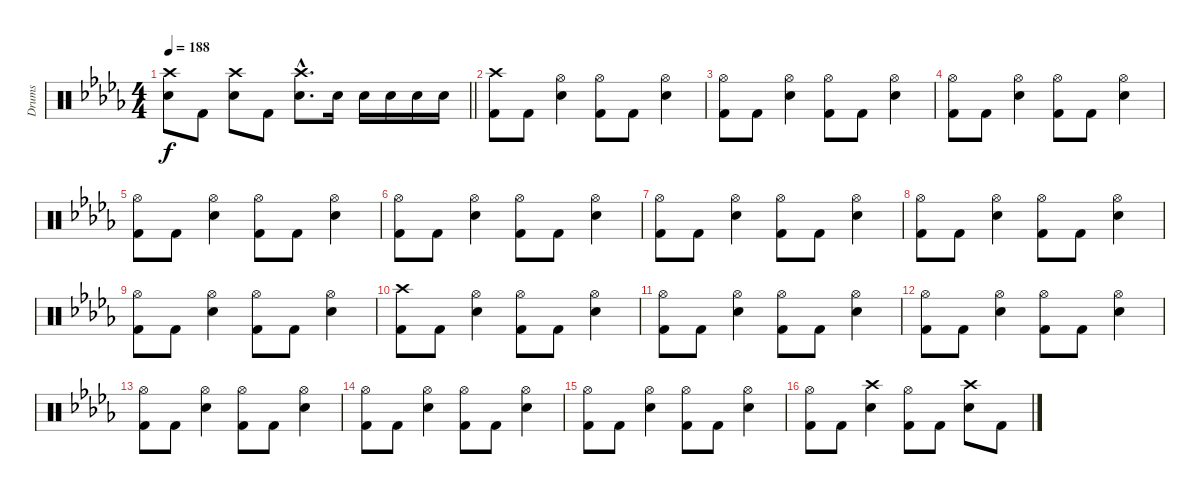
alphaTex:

\track ("Drums" "Drums") {instrument percussion}
\staff {score}
\articulation defaults
\ts (4 4)
\tempo 188
\clef neutral
\barLineRight lightlight
\ks bbminor
("Crash high (hit)" "Electric Snare (hit)").8{dy f} "Kick (hit) 2".8 ("Crash high (hit)" "Electric Snare (hit)").8 "Kick (hit) 2".8 ("Crash high (hit)"{hac} "Electric Snare (hit)"{hac}).8{d} "Electric Snare (hit)".16 "Electric Snare (hit)".16 "Electric Snare (hit)".16 "Electric Snare (hit)".16 "Electric Snare (hit)".16 |
("Crash high (hit)" "Kick (hit) 2").8 "Kick (hit) 2".8 ("Hi-Hat (open)" "Electric Snare (hit)").4 ("Hi-Hat (open)" "Kick (hit) 2").8 "Kick (hit) 2".8 ("Hi-Hat (open)" "Electric Snare (hit)").4 |
("Hi-Hat (open)" "Kick (hit) 2").8 "Kick (hit) 2".8 ("Hi-Hat (open)" "Electric Snare (hit)").4 ("Hi-Hat (open)" "Kick (hit) 2").8 "Kick (hit) 2".8 ("Hi-Hat (open)" "Electric Snare (hit)").4 |
("Hi-Hat (open)" "Kick (hit) 2").8 "Kick (hit) 2".8 ("Hi-Hat (open)" "Electric Snare (hit)").4 ("Hi-Hat (open)" "Kick (hit) 2").8 "Kick (hit) 2".8 ("Hi-Hat (open)" "Electric Snare (hit)").4 |
("Hi-Hat (open)" "Kick (hit) 2").8 "Kick (hit) 2".8 ("Hi-Hat (open)" "Electric Snare (hit)").4 ("Hi-Hat (open)" "Kick (hit) 2").8 "Kick (hit) 2".8 ("Hi-Hat (open)" "Electric Snare (hit)").4 |
("Hi-Hat (open)" "Kick (hit) 2").8 "Kick (hit) 2".8 ("Hi-Hat (open)" "Electric Snare (hit)").4 ("Hi-Hat (open)" "Kick (hit) 2").8 "Kick (hit) 2".8 ("Hi-Hat (open)" "Electric Snare (hit)").4 |
("Hi-Hat (open)" "Kick (hit) 2").8 "Kick (hit) 2".8 ("Hi-Hat (open)" "Electric Snare (hit)").4 ("Hi-Hat (open)" "Kick (hit) 2").8 "Kick (hit) 2".8 ("Hi-Hat (open)" "Electric Snare (hit)").4 |
("Hi-Hat (open)" "Kick (hit) 2").8 "Kick (hit) 2".8 ("Hi-Hat (open)" "Electric Snare (hit)").4 ("Hi-Hat (open)" "Kick (hit) 2").8 "Kick (hit) 2".8 ("Hi-Hat (open)" "Electric Snare (hit)").4 |
("Hi-Hat (open)" "Kick (hit) 2").8 "Kick (hit) 2".8 ("Hi-Hat (open)" "Electric Snare (hit)").4 ("Hi-Hat (open)" "Kick (hit) 2").8 "Kick (hit) 2".8 ("Hi-Hat (open)" "Electric Snare (hit)").4 |
("Crash high (hit)" "Kick (hit) 2").8 "Kick (hit) 2".8 ("Hi-Hat (open)" "Electric Snare (hit)").4 ("Hi-Hat (open)" "Kick (hit) 2").8 "Kick (hit) 2".8 ("Hi-Hat (open)" "Electric Snare (hit)").4 |
("Hi-Hat (open)" "Kick (hit) 2").8 "Kick (hit) 2".8 ("Hi-Hat (open)" "Electric Snare (hit)").4 ("Hi-Hat (open)" "Kick (hit) 2").8 "Kick (hit) 2".8 ("Hi-Hat (open)" "Electric Snare (hit)").4 |
("Hi-Hat (open)" "Kick (hit) 2").8 "Kick (hit) 2".8 ("Hi-Hat (open)" "Electric Snare (hit)").4 ("Hi-Hat (open)" "Kick (hit) 2").8 "Kick (hit) 2".8 ("Hi-Hat (open)" "Electric Snare (hit)").4 |
("Hi-Hat (open)" "Kick (hit) 2").8 "Kick (hit) 2".8 ("Hi-Hat (open)" "Electric Snare (hit)").4 ("Hi-Hat (open)" "Kick (hit) 2").8 "Kick (hit) 2".8 ("Hi-Hat (open)" "Electric Snare (hit)").4 |
("Hi-Hat (open)" "Kick (hit) 2").8 "Kick (hit) 2".8 ("Hi-Hat (open)" "Electric Snare (hit)").4 ("Hi-Hat (open)" "Kick (hit) 2").8 "Kick (hit) 2".8 ("Hi-Hat (open)" "Electric Snare (hit)").4 |
("Hi-Hat (open)" "Kick (hit) 2").8 "Kick (hit) 2".8 ("Hi-Hat (open)" "Electric Snare (hit)").4 ("Hi-Hat (open)" "Kick (hit) 2").8 "Kick (hit) 2".8 ("Hi-Hat (open)" "Electric Snare (hit)").4 |
("Hi-Hat (open)" "Kick (hit) 2").8 "Kick (hit) 2".8 ("Crash high (hit)" "Electric Snare (hit)").4 ("Hi-Hat (open)" "Kick (hit) 2").8 "Kick (hit) 2".8 ("Crash high (hit)" "Electric Snare (hit)").8 "Kick (hit) 2".8
